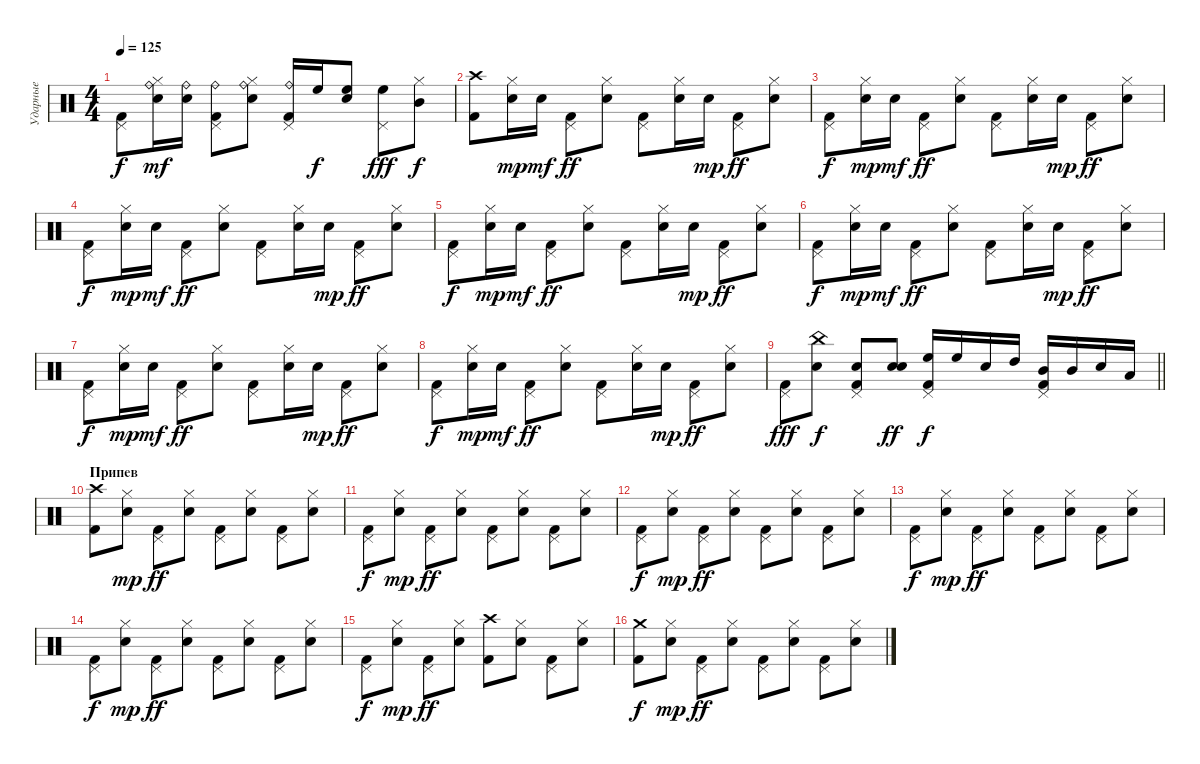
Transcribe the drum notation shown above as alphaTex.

\track ("Ударные" "Ударные") {instrument percussion}
\staff {score}
\articulation defaults
\ts (4 4)
\tempo 125
\clef neutral
\ks c
("Pedal Hi-Hat (hit)" "Kick (hit) 2").8{dy f} ("Hi-Hat (closed)" "Electric Snare (hit)" "Ride (bell)").16{dy mf} ("Electric Snare (hit)" "Ride (bell)").16 ("Pedal Hi-Hat (hit)" "Ride (bell)" "Kick (hit) 2").8 ("Hi-Hat (closed)" "Electric Snare (hit)" "Ride (bell)").8 ("Pedal Hi-Hat (hit)" "Ride (bell)" "Kick (hit) 2").16 "High Floor Tom (hit)".16{dy f} ("Electric Snare (hit)" "High Floor Tom (hit)").8 ("Pedal Hi-Hat (hit)" "High Floor Tom (hit)").8{dy fff} ("Hi-Hat (closed)" "Mid Tom (hit)").8{dy f} |
("Crash high (hit)" "Kick (hit) 2").8 ("Hi-Hat (closed)" "Electric Snare (hit)").16{dy mp} "Electric Snare (hit)".16{dy mf} ("Pedal Hi-Hat (hit)" "Kick (hit) 2").8{dy ff} ("Hi-Hat (closed)" "Electric Snare (hit)").8 ("Pedal Hi-Hat (hit)" "Kick (hit) 2").8 ("Hi-Hat (closed)" "Electric Snare (hit)").16 "Electric Snare (hit)".16{dy mp} ("Pedal Hi-Hat (hit)" "Kick (hit) 2").8{dy ff} ("Hi-Hat (closed)" "Electric Snare (hit)").8 |
("Pedal Hi-Hat (hit)" "Kick (hit) 2").8{dy f} ("Hi-Hat (closed)" "Electric Snare (hit)").16{dy mp} "Electric Snare (hit)".16{dy mf} ("Pedal Hi-Hat (hit)" "Kick (hit) 2").8{dy ff} ("Hi-Hat (closed)" "Electric Snare (hit)").8 ("Pedal Hi-Hat (hit)" "Kick (hit) 2").8 ("Hi-Hat (closed)" "Electric Snare (hit)").16 "Electric Snare (hit)".16{dy mp} ("Pedal Hi-Hat (hit)" "Kick (hit) 2").8{dy ff} ("Hi-Hat (closed)" "Electric Snare (hit)").8 |
("Pedal Hi-Hat (hit)" "Kick (hit) 2").8{dy f} ("Hi-Hat (closed)" "Electric Snare (hit)").16{dy mp} "Electric Snare (hit)".16{dy mf} ("Pedal Hi-Hat (hit)" "Kick (hit) 2").8{dy ff} ("Hi-Hat (closed)" "Electric Snare (hit)").8 ("Pedal Hi-Hat (hit)" "Kick (hit) 2").8 ("Hi-Hat (closed)" "Electric Snare (hit)").16 "Electric Snare (hit)".16{dy mp} ("Pedal Hi-Hat (hit)" "Kick (hit) 2").8{dy ff} ("Hi-Hat (closed)" "Electric Snare (hit)").8 |
("Pedal Hi-Hat (hit)" "Kick (hit) 2").8{dy f} ("Hi-Hat (closed)" "Electric Snare (hit)").16{dy mp} "Electric Snare (hit)".16{dy mf} ("Pedal Hi-Hat (hit)" "Kick (hit) 2").8{dy ff} ("Hi-Hat (closed)" "Electric Snare (hit)").8 ("Pedal Hi-Hat (hit)" "Kick (hit) 2").8 ("Hi-Hat (closed)" "Electric Snare (hit)").16 "Electric Snare (hit)".16{dy mp} ("Pedal Hi-Hat (hit)" "Kick (hit) 2").8{dy ff} ("Hi-Hat (closed)" "Electric Snare (hit)").8 |
("Pedal Hi-Hat (hit)" "Kick (hit) 2").8{dy f} ("Hi-Hat (closed)" "Electric Snare (hit)").16{dy mp} "Electric Snare (hit)".16{dy mf} ("Pedal Hi-Hat (hit)" "Kick (hit) 2").8{dy ff} ("Hi-Hat (closed)" "Electric Snare (hit)").8 ("Pedal Hi-Hat (hit)" "Kick (hit) 2").8 ("Hi-Hat (closed)" "Electric Snare (hit)").16 "Electric Snare (hit)".16{dy mp} ("Pedal Hi-Hat (hit)" "Kick (hit) 2").8{dy ff} ("Hi-Hat (closed)" "Electric Snare (hit)").8 |
("Pedal Hi-Hat (hit)" "Kick (hit) 2").8{dy f} ("Hi-Hat (closed)" "Electric Snare (hit)").16{dy mp} "Electric Snare (hit)".16{dy mf} ("Pedal Hi-Hat (hit)" "Kick (hit) 2").8{dy ff} ("Hi-Hat (closed)" "Electric Snare (hit)").8 ("Pedal Hi-Hat (hit)" "Kick (hit) 2").8 ("Hi-Hat (closed)" "Electric Snare (hit)").16 "Electric Snare (hit)".16{dy mp} ("Pedal Hi-Hat (hit)" "Kick (hit) 2").8{dy ff} ("Hi-Hat (closed)" "Electric Snare (hit)").8 |
("Pedal Hi-Hat (hit)" "Kick (hit) 2").8{dy f} ("Hi-Hat (closed)" "Electric Snare (hit)").16{dy mp} "Electric Snare (hit)".16{dy mf} ("Pedal Hi-Hat (hit)" "Kick (hit) 2").8{dy ff} ("Hi-Hat (closed)" "Electric Snare (hit)").8 ("Pedal Hi-Hat (hit)" "Kick (hit) 2").8 ("Hi-Hat (closed)" "Electric Snare (hit)").16 "Electric Snare (hit)".16{dy mp} ("Pedal Hi-Hat (hit)" "Kick (hit) 2").8{dy ff} ("Hi-Hat (closed)" "Electric Snare (hit)").8 |
\barLineRight lightlight
("Pedal Hi-Hat (hit)" "Kick (hit) 2").8{dy fff} ("China (hit)" "Electric Snare (hit)").8{dy f} ("Pedal Hi-Hat (hit)" "Electric Snare (hit)" "Kick (hit) 2").8 ("Electric Snare (hit)" "Electric Snare (hit)").8{dy ff} ("Pedal Hi-Hat (hit)" "High Floor Tom (hit)" "Kick (hit) 2").16{dy f} "High Floor Tom (hit)".16 "Electric Snare (hit)".16 "High Tom (hit)".16 ("Pedal Hi-Hat (hit)" "Mid Tom (hit)" "Kick (hit) 2").16 "Mid Tom (hit)".16 "Electric Snare (hit)".16 "Low Tom (hit)".16 |
\section ("" "Припев")
("Crash high (hit)" "Kick (hit) 2").8 ("Hi-Hat (closed)" "Electric Snare (hit)").8{dy mp} ("Pedal Hi-Hat (hit)" "Kick (hit) 2").8{dy ff} ("Hi-Hat (closed)" "Electric Snare (hit)").8 ("Pedal Hi-Hat (hit)" "Kick (hit) 2").8 ("Hi-Hat (closed)" "Electric Snare (hit)").8 ("Pedal Hi-Hat (hit)" "Kick (hit) 2").8 ("Hi-Hat (closed)" "Electric Snare (hit)").8 |
("Pedal Hi-Hat (hit)" "Kick (hit) 2").8{dy f} ("Hi-Hat (closed)" "Electric Snare (hit)").8{dy mp} ("Pedal Hi-Hat (hit)" "Kick (hit) 2").8{dy ff} ("Hi-Hat (closed)" "Electric Snare (hit)").8 ("Pedal Hi-Hat (hit)" "Kick (hit) 2").8 ("Hi-Hat (closed)" "Electric Snare (hit)").8 ("Pedal Hi-Hat (hit)" "Kick (hit) 2").8 ("Hi-Hat (closed)" "Electric Snare (hit)").8 |
("Pedal Hi-Hat (hit)" "Kick (hit) 2").8{dy f} ("Hi-Hat (closed)" "Electric Snare (hit)").8{dy mp} ("Pedal Hi-Hat (hit)" "Kick (hit) 2").8{dy ff} ("Hi-Hat (closed)" "Electric Snare (hit)").8 ("Pedal Hi-Hat (hit)" "Kick (hit) 2").8 ("Hi-Hat (closed)" "Electric Snare (hit)").8 ("Pedal Hi-Hat (hit)" "Kick (hit) 2").8 ("Hi-Hat (closed)" "Electric Snare (hit)").8 |
("Pedal Hi-Hat (hit)" "Kick (hit) 2").8{dy f} ("Hi-Hat (closed)" "Electric Snare (hit)").8{dy mp} ("Pedal Hi-Hat (hit)" "Kick (hit) 2").8{dy ff} ("Hi-Hat (closed)" "Electric Snare (hit)").8 ("Pedal Hi-Hat (hit)" "Kick (hit) 2").8 ("Hi-Hat (closed)" "Electric Snare (hit)").8 ("Pedal Hi-Hat (hit)" "Kick (hit) 2").8 ("Hi-Hat (closed)" "Electric Snare (hit)").8 |
("Pedal Hi-Hat (hit)" "Kick (hit) 2").8{dy f} ("Hi-Hat (closed)" "Electric Snare (hit)").8{dy mp} ("Pedal Hi-Hat (hit)" "Kick (hit) 2").8{dy ff} ("Hi-Hat (closed)" "Electric Snare (hit)").8 ("Pedal Hi-Hat (hit)" "Kick (hit) 2").8 ("Hi-Hat (closed)" "Electric Snare (hit)").8 ("Pedal Hi-Hat (hit)" "Kick (hit) 2").8 ("Hi-Hat (closed)" "Electric Snare (hit)").8 |
("Pedal Hi-Hat (hit)" "Kick (hit) 2").8{dy f} ("Hi-Hat (closed)" "Electric Snare (hit)").8{dy mp} ("Pedal Hi-Hat (hit)" "Kick (hit) 2").8{dy ff} ("Hi-Hat (closed)" "Electric Snare (hit)").8 ("Crash high (hit)" "Kick (hit) 2").8 ("Hi-Hat (closed)" "Electric Snare (hit)").8 ("Pedal Hi-Hat (hit)" "Kick (hit) 2").8 ("Hi-Hat (closed)" "Electric Snare (hit)").8 |
("Crash medium (hit)" "Kick (hit) 2").8{dy f} ("Hi-Hat (closed)" "Electric Snare (hit)").8{dy mp} ("Pedal Hi-Hat (hit)" "Kick (hit) 2").8{dy ff} ("Hi-Hat (closed)" "Electric Snare (hit)").8 ("Pedal Hi-Hat (hit)" "Kick (hit) 2").8 ("Hi-Hat (closed)" "Electric Snare (hit)").8 ("Pedal Hi-Hat (hit)" "Kick (hit) 2").8 ("Hi-Hat (closed)" "Electric Snare (hit)").8
